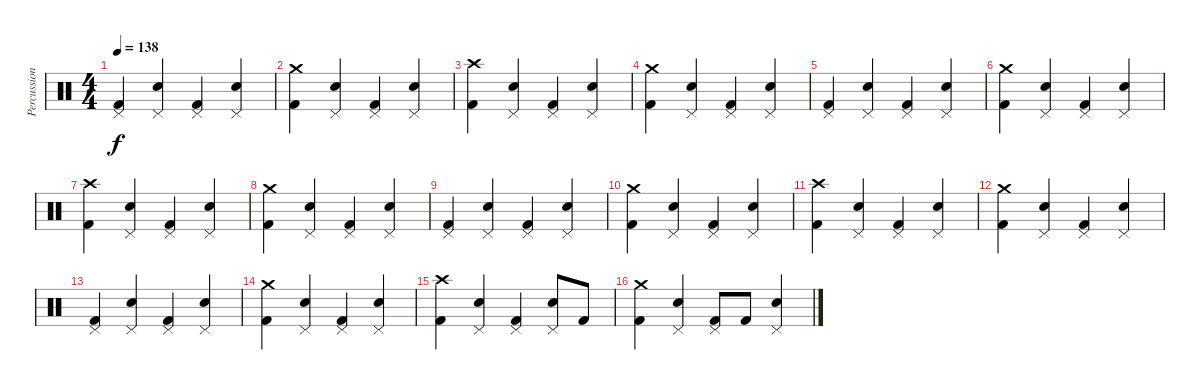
\track ("Percussion" "Percussion") {instrument percussion}
\staff {score}
\articulation defaults
\ts (4 4)
\tempo 138
\clef neutral
\ks c
("Pedal Hi-Hat (hit)" "Kick (hit) 2").4{dy f} ("Pedal Hi-Hat (hit)" "Snare (hit) 2").4 ("Pedal Hi-Hat (hit)" "Kick (hit) 2").4 ("Pedal Hi-Hat (hit)" "Snare (hit) 2").4 |
("Crash medium (hit)" "Kick (hit) 2").4 ("Pedal Hi-Hat (hit)" "Snare (hit) 2").4 ("Pedal Hi-Hat (hit)" "Kick (hit) 2").4 ("Pedal Hi-Hat (hit)" "Snare (hit) 2").4 |
("Crash high (hit)" "Kick (hit) 2").4 ("Pedal Hi-Hat (hit)" "Snare (hit) 2").4 ("Pedal Hi-Hat (hit)" "Kick (hit) 2").4 ("Pedal Hi-Hat (hit)" "Snare (hit) 2").4 |
("Crash medium (hit)" "Kick (hit) 2").4 ("Pedal Hi-Hat (hit)" "Snare (hit) 2").4 ("Pedal Hi-Hat (hit)" "Kick (hit) 2").4 ("Pedal Hi-Hat (hit)" "Snare (hit) 2").4 |
("Pedal Hi-Hat (hit)" "Kick (hit) 2").4 ("Pedal Hi-Hat (hit)" "Snare (hit) 2").4 ("Pedal Hi-Hat (hit)" "Kick (hit) 2").4 ("Pedal Hi-Hat (hit)" "Snare (hit) 2").4 |
("Crash medium (hit)" "Kick (hit) 2").4 ("Pedal Hi-Hat (hit)" "Snare (hit) 2").4 ("Pedal Hi-Hat (hit)" "Kick (hit) 2").4 ("Pedal Hi-Hat (hit)" "Snare (hit) 2").4 |
("Crash high (hit)" "Kick (hit) 2").4 ("Pedal Hi-Hat (hit)" "Snare (hit) 2").4 ("Pedal Hi-Hat (hit)" "Kick (hit) 2").4 ("Pedal Hi-Hat (hit)" "Snare (hit) 2").4 |
("Crash medium (hit)" "Kick (hit) 2").4 ("Pedal Hi-Hat (hit)" "Snare (hit) 2").4 ("Pedal Hi-Hat (hit)" "Kick (hit) 2").4 ("Pedal Hi-Hat (hit)" "Snare (hit) 2").4 |
("Pedal Hi-Hat (hit)" "Kick (hit) 2").4 ("Pedal Hi-Hat (hit)" "Snare (hit) 2").4 ("Pedal Hi-Hat (hit)" "Kick (hit) 2").4 ("Pedal Hi-Hat (hit)" "Snare (hit) 2").4 |
("Crash medium (hit)" "Kick (hit) 2").4 ("Pedal Hi-Hat (hit)" "Snare (hit) 2").4 ("Pedal Hi-Hat (hit)" "Kick (hit) 2").4 ("Pedal Hi-Hat (hit)" "Snare (hit) 2").4 |
("Crash high (hit)" "Kick (hit) 2").4 ("Pedal Hi-Hat (hit)" "Snare (hit) 2").4 ("Pedal Hi-Hat (hit)" "Kick (hit) 2").4 ("Pedal Hi-Hat (hit)" "Snare (hit) 2").4 |
("Crash medium (hit)" "Kick (hit) 2").4 ("Pedal Hi-Hat (hit)" "Snare (hit) 2").4 ("Pedal Hi-Hat (hit)" "Kick (hit) 2").4 ("Pedal Hi-Hat (hit)" "Snare (hit) 2").4 |
("Pedal Hi-Hat (hit)" "Kick (hit) 2").4 ("Pedal Hi-Hat (hit)" "Snare (hit) 2").4 ("Pedal Hi-Hat (hit)" "Kick (hit) 2").4 ("Pedal Hi-Hat (hit)" "Snare (hit) 2").4 |
("Crash medium (hit)" "Kick (hit) 2").4 ("Pedal Hi-Hat (hit)" "Snare (hit) 2").4 ("Pedal Hi-Hat (hit)" "Kick (hit) 2").4 ("Pedal Hi-Hat (hit)" "Snare (hit) 2").4 |
("Crash high (hit)" "Kick (hit) 2").4 ("Pedal Hi-Hat (hit)" "Snare (hit) 2").4 ("Pedal Hi-Hat (hit)" "Kick (hit) 2").4 ("Pedal Hi-Hat (hit)" "Snare (hit) 2").8 "Kick (hit) 2".8 |
("Crash medium (hit)" "Kick (hit) 2").4 ("Pedal Hi-Hat (hit)" "Snare (hit) 2").4 ("Pedal Hi-Hat (hit)" "Kick (hit) 2").8 "Kick (hit) 2".8 ("Pedal Hi-Hat (hit)" "Snare (hit) 2").4
